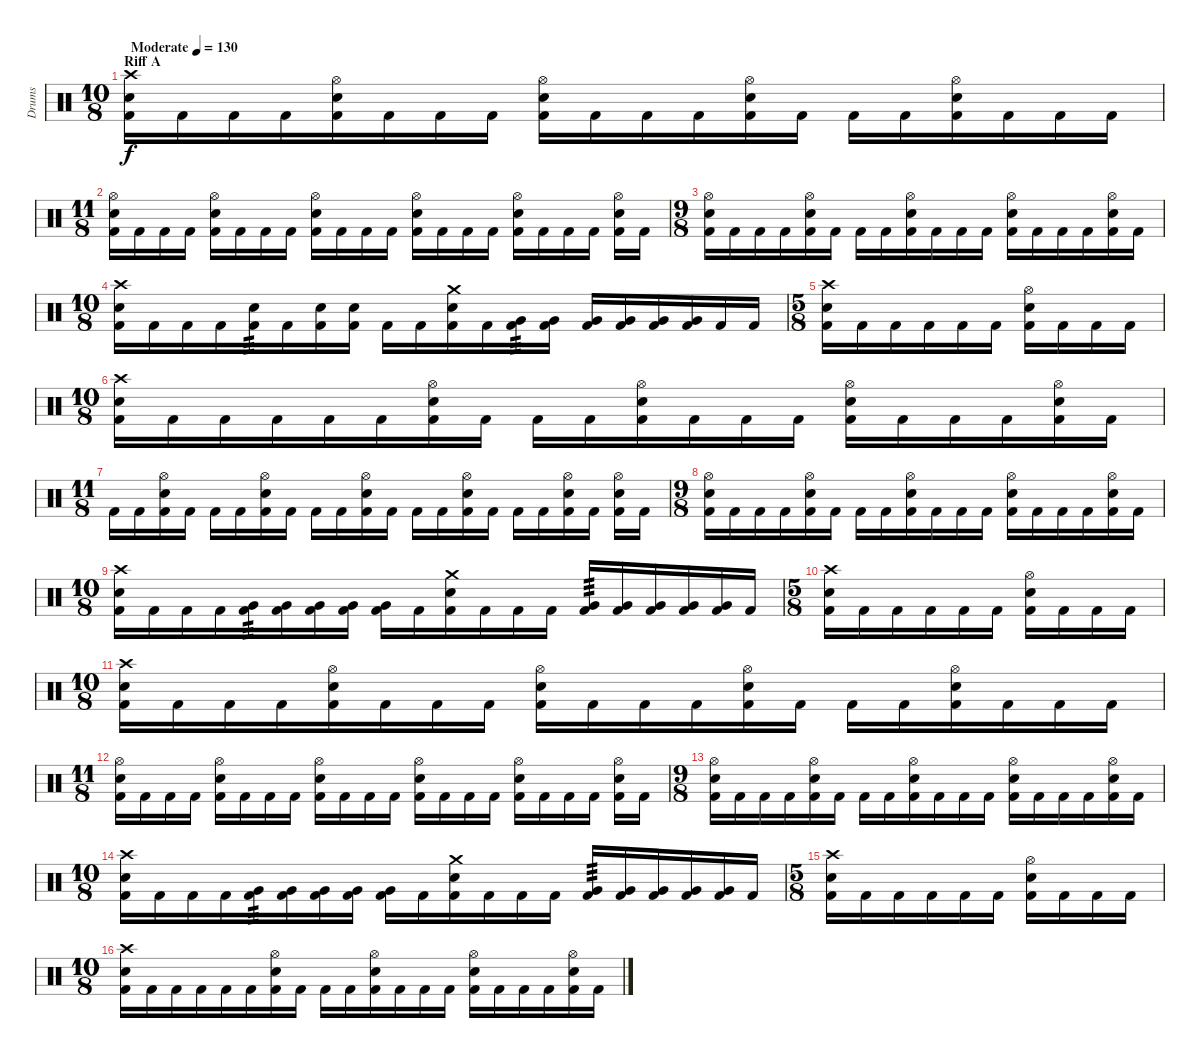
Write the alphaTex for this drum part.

\track ("Drums" "Drums") {instrument percussion}
\staff {score}
\articulation defaults
\ts (10 8)
\section ("" "Riff A")
\tempo (130 "Moderate")
\clef neutral
\ks c
("Crash high (hit)" "Kick (hit) 2" "Snare (hit) 2").16{dy f} "Kick (hit) 2".16 "Kick (hit) 2".16 "Kick (hit) 2".16 ("Hi-Hat (open)" "Kick (hit) 2" "Snare (hit) 2").16 "Kick (hit) 2".16 "Kick (hit) 2".16 "Kick (hit) 2".16 ("Hi-Hat (open)" "Kick (hit) 2" "Snare (hit) 2").16 "Kick (hit) 2".16 "Kick (hit) 2".16 "Kick (hit) 2".16 ("Hi-Hat (open)" "Kick (hit) 2" "Snare (hit) 2").16 "Kick (hit) 2".16 "Kick (hit) 2".16 "Kick (hit) 2".16 ("Hi-Hat (open)" "Kick (hit) 2" "Snare (hit) 2").16 "Kick (hit) 2".16 "Kick (hit) 2".16 "Kick (hit) 2".16 |
\ts (11 8)
("Hi-Hat (open)" "Kick (hit) 2" "Snare (hit) 2").16 "Kick (hit) 2".16 "Kick (hit) 2".16 "Kick (hit) 2".16 ("Hi-Hat (open)" "Kick (hit) 2" "Snare (hit) 2").16 "Kick (hit) 2".16 "Kick (hit) 2".16 "Kick (hit) 2".16 ("Hi-Hat (open)" "Kick (hit) 2" "Snare (hit) 2").16 "Kick (hit) 2".16 "Kick (hit) 2".16 "Kick (hit) 2".16 ("Hi-Hat (open)" "Kick (hit) 2" "Snare (hit) 2").16 "Kick (hit) 2".16 "Kick (hit) 2".16 "Kick (hit) 2".16 ("Hi-Hat (open)" "Kick (hit) 2" "Snare (hit) 2").16 "Kick (hit) 2".16 "Kick (hit) 2".16 "Kick (hit) 2".16 ("Hi-Hat (open)" "Kick (hit) 2" "Snare (hit) 2").16 "Kick (hit) 2".16 |
\ts (9 8)
("Hi-Hat (open)" "Kick (hit) 2" "Snare (hit) 2").16 "Kick (hit) 2".16 "Kick (hit) 2".16 "Kick (hit) 2".16 ("Hi-Hat (open)" "Kick (hit) 2" "Snare (hit) 2").16 "Kick (hit) 2".16 "Kick (hit) 2".16 "Kick (hit) 2".16 ("Hi-Hat (open)" "Kick (hit) 2" "Snare (hit) 2").16 "Kick (hit) 2".16 "Kick (hit) 2".16 "Kick (hit) 2".16 ("Hi-Hat (open)" "Kick (hit) 2" "Snare (hit) 2").16 "Kick (hit) 2".16 "Kick (hit) 2".16 "Kick (hit) 2".16 ("Hi-Hat (open)" "Kick (hit) 2" "Snare (hit) 2").16 "Kick (hit) 2".16 |
\ts (10 8)
("Crash high (hit)" "Kick (hit) 2" "Snare (hit) 2").16 "Kick (hit) 2".16 "Kick (hit) 2".16 "Kick (hit) 2".16 ("Kick (hit) 2" "Snare (hit) 2").16{tp 3} "Kick (hit) 2".16 ("Kick (hit) 2" "Snare (hit) 2").16 ("Kick (hit) 2" "Snare (hit) 2").16 "Kick (hit) 2".16 "Kick (hit) 2".16 ("Kick (hit) 2" "Crash medium (hit)" "Snare (hit) 2").16 "Kick (hit) 2".16 ("Kick (hit) 2" "Very Low Tom (hit)").16{tp 3} ("Kick (hit) 2" "Very Low Tom (hit)").16 ("Kick (hit) 2" "Very Low Tom (hit)").16 ("Kick (hit) 2" "Very Low Tom (hit)").16 ("Kick (hit) 2" "Very Low Tom (hit)").16 ("Kick (hit) 2" "Very Low Tom (hit)").16 "Kick (hit) 2".16 "Kick (hit) 2".16 |
\ts (5 8)
("Kick (hit) 2" "Snare (hit) 2" "Crash high (hit)").16 "Kick (hit) 2".16 "Kick (hit) 2".16 "Kick (hit) 2".16 "Kick (hit) 2".16 "Kick (hit) 2".16 ("Kick (hit) 2" "Hi-Hat (open)" "Snare (hit) 2").16 "Kick (hit) 2".16 "Kick (hit) 2".16 "Kick (hit) 2".16 |
\ts (10 8)
("Crash high (hit)" "Kick (hit) 2" "Snare (hit) 2").16 "Kick (hit) 2".16 "Kick (hit) 2".16 "Kick (hit) 2".16 "Kick (hit) 2".16 "Kick (hit) 2".16 ("Kick (hit) 2" "Snare (hit) 2" "Hi-Hat (open)").16 "Kick (hit) 2".16 "Kick (hit) 2".16 "Kick (hit) 2".16 ("Kick (hit) 2" "Snare (hit) 2" "Hi-Hat (open)").16 "Kick (hit) 2".16 "Kick (hit) 2".16 "Kick (hit) 2".16 ("Kick (hit) 2" "Snare (hit) 2" "Hi-Hat (open)").16 "Kick (hit) 2".16 "Kick (hit) 2".16 "Kick (hit) 2".16 ("Kick (hit) 2" "Snare (hit) 2" "Hi-Hat (open)").16 "Kick (hit) 2".16 |
\ts (11 8)
"Kick (hit) 2".16 "Kick (hit) 2".16 ("Kick (hit) 2" "Snare (hit) 2" "Hi-Hat (open)").16 "Kick (hit) 2".16 "Kick (hit) 2".16 "Kick (hit) 2".16 ("Kick (hit) 2" "Snare (hit) 2" "Hi-Hat (open)").16 "Kick (hit) 2".16 "Kick (hit) 2".16 "Kick (hit) 2".16 ("Kick (hit) 2" "Snare (hit) 2" "Hi-Hat (open)").16 "Kick (hit) 2".16 "Kick (hit) 2".16 "Kick (hit) 2".16 ("Kick (hit) 2" "Snare (hit) 2" "Hi-Hat (open)").16 "Kick (hit) 2".16 "Kick (hit) 2".16 "Kick (hit) 2".16 ("Kick (hit) 2" "Snare (hit) 2" "Hi-Hat (open)").16 "Kick (hit) 2".16 ("Snare (hit) 2" "Kick (hit) 2" "Hi-Hat (open)").16 "Kick (hit) 2".16 |
\ts (9 8)
("Hi-Hat (open)" "Kick (hit) 2" "Snare (hit) 2").16 "Kick (hit) 2".16 "Kick (hit) 2".16 "Kick (hit) 2".16 ("Hi-Hat (open)" "Kick (hit) 2" "Snare (hit) 2").16 "Kick (hit) 2".16 "Kick (hit) 2".16 "Kick (hit) 2".16 ("Hi-Hat (open)" "Kick (hit) 2" "Snare (hit) 2").16 "Kick (hit) 2".16 "Kick (hit) 2".16 "Kick (hit) 2".16 ("Hi-Hat (open)" "Kick (hit) 2" "Snare (hit) 2").16 "Kick (hit) 2".16 "Kick (hit) 2".16 "Kick (hit) 2".16 ("Hi-Hat (open)" "Kick (hit) 2" "Snare (hit) 2").16 "Kick (hit) 2".16 |
\ts (10 8)
("Crash high (hit)" "Kick (hit) 2" "Snare (hit) 2").16 "Kick (hit) 2".16 "Kick (hit) 2".16 "Kick (hit) 2".16 ("Kick (hit) 2" "Very Low Tom (hit)").16{tp 3} ("Very Low Tom (hit)" "Kick (hit) 2").16 ("Kick (hit) 2" "Very Low Tom (hit)").16 ("Kick (hit) 2" "Very Low Tom (hit)").16 ("Kick (hit) 2" "Very Low Tom (hit)").16 "Kick (hit) 2".16 ("Kick (hit) 2" "Crash medium (hit)" "Snare (hit) 2").16 "Kick (hit) 2".16 "Kick (hit) 2".16 "Kick (hit) 2".16 ("Kick (hit) 2" "Very Low Tom (hit)").16{tp 3} ("Kick (hit) 2" "Very Low Tom (hit)").16 ("Kick (hit) 2" "Very Low Tom (hit)").16 ("Kick (hit) 2" "Very Low Tom (hit)").16 ("Kick (hit) 2" "Very Low Tom (hit)").16 "Kick (hit) 2".16 |
\ts (5 8)
("Kick (hit) 2" "Snare (hit) 2" "Crash high (hit)").16 "Kick (hit) 2".16 "Kick (hit) 2".16 "Kick (hit) 2".16 "Kick (hit) 2".16 "Kick (hit) 2".16 ("Kick (hit) 2" "Hi-Hat (open)" "Snare (hit) 2").16 "Kick (hit) 2".16 "Kick (hit) 2".16 "Kick (hit) 2".16 |
\ts (10 8)
("Crash high (hit)" "Kick (hit) 2" "Snare (hit) 2").16 "Kick (hit) 2".16 "Kick (hit) 2".16 "Kick (hit) 2".16 ("Hi-Hat (open)" "Kick (hit) 2" "Snare (hit) 2").16 "Kick (hit) 2".16 "Kick (hit) 2".16 "Kick (hit) 2".16 ("Hi-Hat (open)" "Kick (hit) 2" "Snare (hit) 2").16 "Kick (hit) 2".16 "Kick (hit) 2".16 "Kick (hit) 2".16 ("Hi-Hat (open)" "Kick (hit) 2" "Snare (hit) 2").16 "Kick (hit) 2".16 "Kick (hit) 2".16 "Kick (hit) 2".16 ("Hi-Hat (open)" "Kick (hit) 2" "Snare (hit) 2").16 "Kick (hit) 2".16 "Kick (hit) 2".16 "Kick (hit) 2".16 |
\ts (11 8)
("Hi-Hat (open)" "Kick (hit) 2" "Snare (hit) 2").16 "Kick (hit) 2".16 "Kick (hit) 2".16 "Kick (hit) 2".16 ("Hi-Hat (open)" "Kick (hit) 2" "Snare (hit) 2").16 "Kick (hit) 2".16 "Kick (hit) 2".16 "Kick (hit) 2".16 ("Hi-Hat (open)" "Kick (hit) 2" "Snare (hit) 2").16 "Kick (hit) 2".16 "Kick (hit) 2".16 "Kick (hit) 2".16 ("Hi-Hat (open)" "Kick (hit) 2" "Snare (hit) 2").16 "Kick (hit) 2".16 "Kick (hit) 2".16 "Kick (hit) 2".16 ("Hi-Hat (open)" "Kick (hit) 2" "Snare (hit) 2").16 "Kick (hit) 2".16 "Kick (hit) 2".16 "Kick (hit) 2".16 ("Hi-Hat (open)" "Kick (hit) 2" "Snare (hit) 2").16 "Kick (hit) 2".16 |
\ts (9 8)
("Hi-Hat (open)" "Kick (hit) 2" "Snare (hit) 2").16 "Kick (hit) 2".16 "Kick (hit) 2".16 "Kick (hit) 2".16 ("Hi-Hat (open)" "Kick (hit) 2" "Snare (hit) 2").16 "Kick (hit) 2".16 "Kick (hit) 2".16 "Kick (hit) 2".16 ("Hi-Hat (open)" "Kick (hit) 2" "Snare (hit) 2").16 "Kick (hit) 2".16 "Kick (hit) 2".16 "Kick (hit) 2".16 ("Hi-Hat (open)" "Kick (hit) 2" "Snare (hit) 2").16 "Kick (hit) 2".16 "Kick (hit) 2".16 "Kick (hit) 2".16 ("Hi-Hat (open)" "Kick (hit) 2" "Snare (hit) 2").16 "Kick (hit) 2".16 |
\ts (10 8)
("Crash high (hit)" "Kick (hit) 2" "Snare (hit) 2").16 "Kick (hit) 2".16 "Kick (hit) 2".16 "Kick (hit) 2".16 ("Kick (hit) 2" "Very Low Tom (hit)").16{tp 3} ("Very Low Tom (hit)" "Kick (hit) 2").16 ("Kick (hit) 2" "Very Low Tom (hit)").16 ("Kick (hit) 2" "Very Low Tom (hit)").16 ("Kick (hit) 2" "Very Low Tom (hit)").16 "Kick (hit) 2".16 ("Kick (hit) 2" "Crash medium (hit)" "Snare (hit) 2").16 "Kick (hit) 2".16 "Kick (hit) 2".16 "Kick (hit) 2".16 ("Kick (hit) 2" "Very Low Tom (hit)").16{tp 3} ("Kick (hit) 2" "Very Low Tom (hit)").16 ("Kick (hit) 2" "Very Low Tom (hit)").16 ("Kick (hit) 2" "Very Low Tom (hit)").16 ("Kick (hit) 2" "Very Low Tom (hit)").16 "Kick (hit) 2".16 |
\ts (5 8)
("Kick (hit) 2" "Snare (hit) 2" "Crash high (hit)").16 "Kick (hit) 2".16 "Kick (hit) 2".16 "Kick (hit) 2".16 "Kick (hit) 2".16 "Kick (hit) 2".16 ("Kick (hit) 2" "Hi-Hat (open)" "Snare (hit) 2").16 "Kick (hit) 2".16 "Kick (hit) 2".16 "Kick (hit) 2".16 |
\ts (10 8)
("Crash high (hit)" "Kick (hit) 2" "Snare (hit) 2").16 "Kick (hit) 2".16 "Kick (hit) 2".16 "Kick (hit) 2".16 "Kick (hit) 2".16 "Kick (hit) 2".16 ("Kick (hit) 2" "Snare (hit) 2" "Hi-Hat (open)").16 "Kick (hit) 2".16 "Kick (hit) 2".16 "Kick (hit) 2".16 ("Kick (hit) 2" "Snare (hit) 2" "Hi-Hat (open)").16 "Kick (hit) 2".16 "Kick (hit) 2".16 "Kick (hit) 2".16 ("Kick (hit) 2" "Snare (hit) 2" "Hi-Hat (open)").16 "Kick (hit) 2".16 "Kick (hit) 2".16 "Kick (hit) 2".16 ("Kick (hit) 2" "Snare (hit) 2" "Hi-Hat (open)").16 "Kick (hit) 2".16
